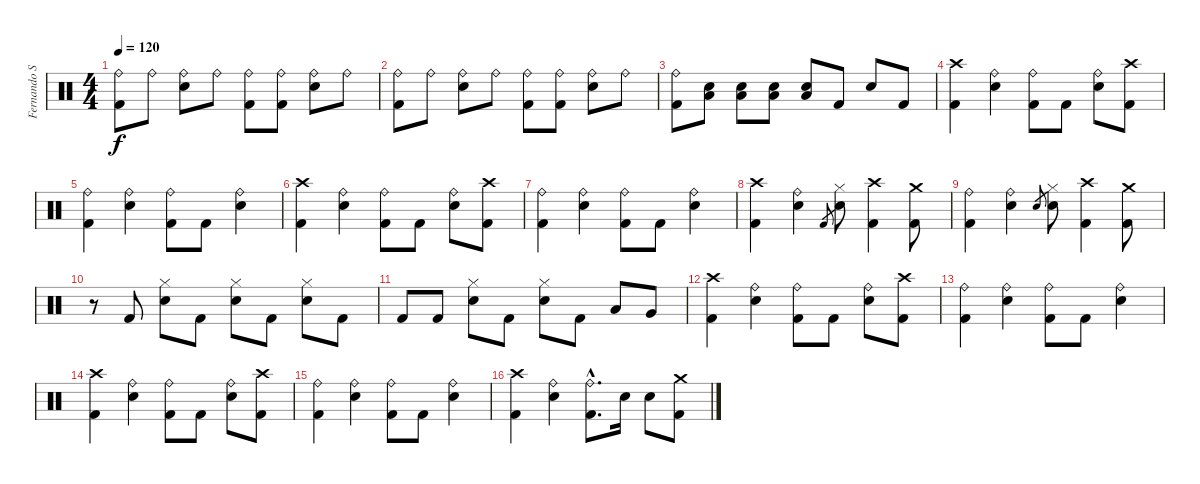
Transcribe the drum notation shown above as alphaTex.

\track ("Fernando Scarcella" "Fernando S") {instrument percussion}
\staff {score}
\articulation defaults
\ts (4 4)
\tempo 120
\clef neutral
\ks c
("Ride (bell)" "Kick (hit) 2").8{dy f} "Ride (bell)".8 ("Ride (bell)" "Snare (hit) 2").8 "Ride (bell)".8 ("Ride (bell)" "Kick (hit) 2").8 ("Ride (bell)" "Kick (hit) 2").8 ("Ride (bell)" "Snare (hit) 2").8 "Ride (bell)".8 |
("Ride (bell)" "Kick (hit) 2").8 "Ride (bell)".8 ("Ride (bell)" "Snare (hit) 2").8 "Ride (bell)".8 ("Ride (bell)" "Kick (hit) 2").8 ("Ride (bell)" "Kick (hit) 2").8 ("Ride (bell)" "Snare (hit) 2").8 "Ride (bell)".8 |
("Ride (bell)" "Kick (hit) 2").8 ("Low Tom (hit)" "Snare (hit) 2").8 ("Low Tom (hit)" "Snare (hit) 2").8 ("Low Tom (hit)" "Snare (hit) 2").8 ("Low Tom (hit)" "Snare (hit) 2").8 "Kick (hit) 2".8 "Snare (hit) 2".8 "Kick (hit) 2".8 |
("Crash high (hit)" "Kick (hit) 2").4 ("Ride (bell)" "Snare (hit) 2").4 ("Ride (bell)" "Kick (hit) 2").8 "Kick (hit) 2".8 ("Ride (bell)" "Snare (hit) 2").8 ("Crash high (hit)" "Kick (hit) 2").8 |
("Ride (bell)" "Kick (hit) 2").4 ("Ride (bell)" "Snare (hit) 2").4 ("Ride (bell)" "Kick (hit) 2").8 "Kick (hit) 2".8 ("Ride (bell)" "Snare (hit) 2").4 |
("Crash high (hit)" "Kick (hit) 2").4 ("Ride (bell)" "Snare (hit) 2").4 ("Ride (bell)" "Kick (hit) 2").8 "Kick (hit) 2".8 ("Ride (bell)" "Snare (hit) 2").8 ("Crash high (hit)" "Kick (hit) 2").8 |
("Ride (bell)" "Kick (hit) 2").4 ("Ride (bell)" "Snare (hit) 2").4 ("Ride (bell)" "Kick (hit) 2").8 "Kick (hit) 2".8 ("Ride (bell)" "Snare (hit) 2").4 |
("Crash high (hit)" "Kick (hit) 2").4 ("Ride (bell)" "Snare (hit) 2").4 "Kick (hit) 2".8{gr} ("Hi-Hat (closed)" "Snare (hit) 2").8 ("Crash high (hit)" "Kick (hit) 2").4 ("Crash medium (hit)" "Kick (hit) 2").8 |
("Ride (bell)" "Kick (hit) 2").4 ("Ride (bell)" "Snare (hit) 2").4 "Snare (hit) 2".8{gr} ("Hi-Hat (closed)" "Snare (hit) 2").8 ("Crash high (hit)" "Kick (hit) 2").4 ("Crash medium (hit)" "Kick (hit) 2").8 |
r.8 "Kick (hit) 2".8 ("Snare (hit) 2" "Hi-Hat (closed)").8 "Kick (hit) 2".8 ("Snare (hit) 2" "Hi-Hat (closed)").8 "Kick (hit) 2".8 ("Snare (hit) 2" "Hi-Hat (closed)").8 "Kick (hit) 2".8 |
"Kick (hit) 2".8 "Kick (hit) 2".8 ("Snare (hit) 2" "Hi-Hat (closed)").8 "Kick (hit) 2".8 ("Snare (hit) 2" "Hi-Hat (closed)").8 "Kick (hit) 2".8 "Low Tom (hit)".8 "Very Low Tom (hit)".8 |
("Crash high (hit)" "Kick (hit) 2").4 ("Ride (bell)" "Snare (hit) 2").4 ("Ride (bell)" "Kick (hit) 2").8 "Kick (hit) 2".8 ("Ride (bell)" "Snare (hit) 2").8 ("Crash high (hit)" "Kick (hit) 2").8 |
("Ride (bell)" "Kick (hit) 2").4 ("Ride (bell)" "Snare (hit) 2").4 ("Ride (bell)" "Kick (hit) 2").8 "Kick (hit) 2".8 ("Ride (bell)" "Snare (hit) 2").4 |
("Crash high (hit)" "Kick (hit) 2").4 ("Ride (bell)" "Snare (hit) 2").4 ("Ride (bell)" "Kick (hit) 2").8 "Kick (hit) 2".8 ("Ride (bell)" "Snare (hit) 2").8 ("Crash high (hit)" "Kick (hit) 2").8 |
("Ride (bell)" "Kick (hit) 2").4 ("Ride (bell)" "Snare (hit) 2").4 ("Ride (bell)" "Kick (hit) 2").8 "Kick (hit) 2".8 ("Ride (bell)" "Snare (hit) 2").4 |
("Crash high (hit)" "Kick (hit) 2").4 ("Ride (bell)" "Snare (hit) 2").4 ("Ride (bell)"{hac} "Kick (hit) 2"{hac}).8{d} "Snare (hit) 2".16 "Snare (hit) 2".8 ("Crash medium (hit)" "Kick (hit) 2").8
